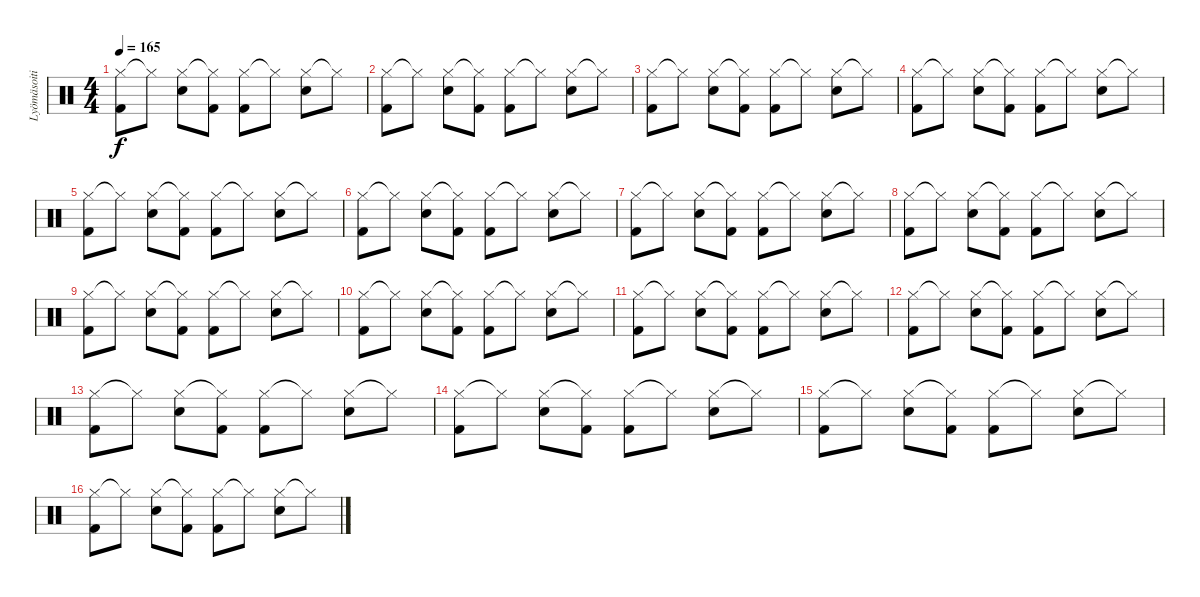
\track ("Lyömäsoitin" "Lyömäsoiti") {instrument percussion}
\staff {score}
\articulation defaults
\ts (4 4)
\tempo 165
\clef neutral
\ks c
("Hi-Hat (closed)" "Kick (hit) 2").8{dy f} "Hi-Hat (closed)"{t}.8 ("Hi-Hat (closed)" "Snare (hit) 2").8 ("Hi-Hat (closed)"{t} "Kick (hit) 2").8 ("Hi-Hat (closed)" "Kick (hit) 2").8 "Hi-Hat (closed)"{t}.8 ("Hi-Hat (closed)" "Snare (hit) 2").8 "Hi-Hat (closed)"{t}.8 |
("Hi-Hat (closed)" "Kick (hit) 2").8 "Hi-Hat (closed)"{t}.8 ("Hi-Hat (closed)" "Snare (hit) 2").8 ("Hi-Hat (closed)"{t} "Kick (hit) 2").8 ("Hi-Hat (closed)" "Kick (hit) 2").8 "Hi-Hat (closed)"{t}.8 ("Hi-Hat (closed)" "Snare (hit) 2").8 "Hi-Hat (closed)"{t}.8 |
("Hi-Hat (closed)" "Kick (hit) 2").8 "Hi-Hat (closed)"{t}.8 ("Hi-Hat (closed)" "Snare (hit) 2").8 ("Hi-Hat (closed)"{t} "Kick (hit) 2").8 ("Hi-Hat (closed)" "Kick (hit) 2").8 "Hi-Hat (closed)"{t}.8 ("Hi-Hat (closed)" "Snare (hit) 2").8 "Hi-Hat (closed)"{t}.8 |
("Hi-Hat (closed)" "Kick (hit) 2").8 "Hi-Hat (closed)"{t}.8 ("Hi-Hat (closed)" "Snare (hit) 2").8 ("Hi-Hat (closed)"{t} "Kick (hit) 2").8 ("Hi-Hat (closed)" "Kick (hit) 2").8 "Hi-Hat (closed)"{t}.8 ("Hi-Hat (closed)" "Snare (hit) 2").8 "Hi-Hat (closed)"{t}.8 |
("Hi-Hat (closed)" "Kick (hit) 2").8 "Hi-Hat (closed)"{t}.8 ("Hi-Hat (closed)" "Snare (hit) 2").8 ("Hi-Hat (closed)"{t} "Kick (hit) 2").8 ("Hi-Hat (closed)" "Kick (hit) 2").8 "Hi-Hat (closed)"{t}.8 ("Hi-Hat (closed)" "Snare (hit) 2").8 "Hi-Hat (closed)"{t}.8 |
("Hi-Hat (closed)" "Kick (hit) 2").8 "Hi-Hat (closed)"{t}.8 ("Hi-Hat (closed)" "Snare (hit) 2").8 ("Hi-Hat (closed)"{t} "Kick (hit) 2").8 ("Hi-Hat (closed)" "Kick (hit) 2").8 "Hi-Hat (closed)"{t}.8 ("Hi-Hat (closed)" "Snare (hit) 2").8 "Hi-Hat (closed)"{t}.8 |
("Hi-Hat (closed)" "Kick (hit) 2").8 "Hi-Hat (closed)"{t}.8 ("Hi-Hat (closed)" "Snare (hit) 2").8 ("Hi-Hat (closed)"{t} "Kick (hit) 2").8 ("Hi-Hat (closed)" "Kick (hit) 2").8 "Hi-Hat (closed)"{t}.8 ("Hi-Hat (closed)" "Snare (hit) 2").8 "Hi-Hat (closed)"{t}.8 |
("Hi-Hat (closed)" "Kick (hit) 2").8 "Hi-Hat (closed)"{t}.8 ("Hi-Hat (closed)" "Snare (hit) 2").8 ("Hi-Hat (closed)"{t} "Kick (hit) 2").8 ("Hi-Hat (closed)" "Kick (hit) 2").8 "Hi-Hat (closed)"{t}.8 ("Hi-Hat (closed)" "Snare (hit) 2").8 "Hi-Hat (closed)"{t}.8 |
("Hi-Hat (closed)" "Kick (hit) 2").8 "Hi-Hat (closed)"{t}.8 ("Hi-Hat (closed)" "Snare (hit) 2").8 ("Hi-Hat (closed)"{t} "Kick (hit) 2").8 ("Hi-Hat (closed)" "Kick (hit) 2").8 "Hi-Hat (closed)"{t}.8 ("Hi-Hat (closed)" "Snare (hit) 2").8 "Hi-Hat (closed)"{t}.8 |
("Hi-Hat (closed)" "Kick (hit) 2").8 "Hi-Hat (closed)"{t}.8 ("Hi-Hat (closed)" "Snare (hit) 2").8 ("Hi-Hat (closed)"{t} "Kick (hit) 2").8 ("Hi-Hat (closed)" "Kick (hit) 2").8 "Hi-Hat (closed)"{t}.8 ("Hi-Hat (closed)" "Snare (hit) 2").8 "Hi-Hat (closed)"{t}.8 |
("Hi-Hat (closed)" "Kick (hit) 2").8 "Hi-Hat (closed)"{t}.8 ("Hi-Hat (closed)" "Snare (hit) 2").8 ("Hi-Hat (closed)"{t} "Kick (hit) 2").8 ("Hi-Hat (closed)" "Kick (hit) 2").8 "Hi-Hat (closed)"{t}.8 ("Hi-Hat (closed)" "Snare (hit) 2").8 "Hi-Hat (closed)"{t}.8 |
("Hi-Hat (closed)" "Kick (hit) 2").8 "Hi-Hat (closed)"{t}.8 ("Hi-Hat (closed)" "Snare (hit) 2").8 ("Hi-Hat (closed)"{t} "Kick (hit) 2").8 ("Hi-Hat (closed)" "Kick (hit) 2").8 "Hi-Hat (closed)"{t}.8 ("Hi-Hat (closed)" "Snare (hit) 2").8 "Hi-Hat (closed)"{t}.8 |
("Hi-Hat (closed)" "Kick (hit) 2").8 "Hi-Hat (closed)"{t}.8 ("Hi-Hat (closed)" "Snare (hit) 2").8 ("Hi-Hat (closed)"{t} "Kick (hit) 2").8 ("Hi-Hat (closed)" "Kick (hit) 2").8 "Hi-Hat (closed)"{t}.8 ("Hi-Hat (closed)" "Snare (hit) 2").8 "Hi-Hat (closed)"{t}.8 |
("Hi-Hat (closed)" "Kick (hit) 2").8 "Hi-Hat (closed)"{t}.8 ("Hi-Hat (closed)" "Snare (hit) 2").8 ("Hi-Hat (closed)"{t} "Kick (hit) 2").8 ("Hi-Hat (closed)" "Kick (hit) 2").8 "Hi-Hat (closed)"{t}.8 ("Hi-Hat (closed)" "Snare (hit) 2").8 "Hi-Hat (closed)"{t}.8 |
("Hi-Hat (closed)" "Kick (hit) 2").8 "Hi-Hat (closed)"{t}.8 ("Hi-Hat (closed)" "Snare (hit) 2").8 ("Hi-Hat (closed)"{t} "Kick (hit) 2").8 ("Hi-Hat (closed)" "Kick (hit) 2").8 "Hi-Hat (closed)"{t}.8 ("Hi-Hat (closed)" "Snare (hit) 2").8 "Hi-Hat (closed)"{t}.8 |
("Hi-Hat (closed)" "Kick (hit) 2").8 "Hi-Hat (closed)"{t}.8 ("Hi-Hat (closed)" "Snare (hit) 2").8 ("Hi-Hat (closed)"{t} "Kick (hit) 2").8 ("Hi-Hat (closed)" "Kick (hit) 2").8 "Hi-Hat (closed)"{t}.8 ("Hi-Hat (closed)" "Snare (hit) 2").8 "Hi-Hat (closed)"{t}.8
